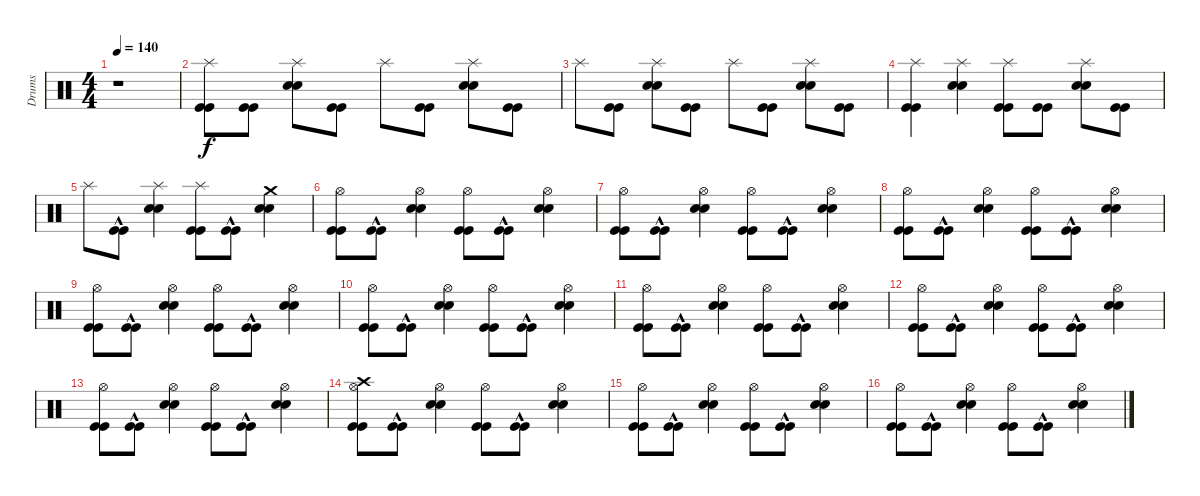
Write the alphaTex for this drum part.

\track ("Drums" "Drums") {instrument percussion}
\staff {score}
\articulation defaults
\ts (4 4)
\tempo 140
\clef neutral
\ks c
r.1{dy f} |
("Kick (hit)" "Kick (hit)" "Splash (hit)").8 ("Kick (hit)" "Kick (hit)").8 ("Snare (hit) 2" "Snare (hit) 2" "Splash (hit)").8 ("Kick (hit)" "Kick (hit)").8 "Splash (hit)".8 ("Kick (hit)" "Kick (hit)").8 ("Snare (hit) 2" "Snare (hit) 2" "Splash (hit)").8 ("Kick (hit)" "Kick (hit)").8 |
"Splash (hit)".8 ("Kick (hit)" "Kick (hit)").8 ("Snare (hit) 2" "Snare (hit) 2" "Splash (hit)").8 ("Kick (hit)" "Kick (hit)").8 "Splash (hit)".8 ("Kick (hit)" "Kick (hit)").8 ("Snare (hit) 2" "Snare (hit) 2" "Splash (hit)").8 ("Kick (hit)" "Kick (hit)").8 |
("Kick (hit)" "Kick (hit)" "Splash (hit)").4 ("Snare (hit) 2" "Snare (hit) 2" "Splash (hit)").4 ("Kick (hit)" "Kick (hit)" "Splash (hit)").8 ("Kick (hit)" "Kick (hit)").8 ("Snare (hit) 2" "Snare (hit) 2" "Splash (hit)").8 ("Kick (hit)" "Kick (hit)").8 |
"Splash (hit)".8 ("Kick (hit)"{hac} "Kick (hit)"{hac}).8 ("Snare (hit) 2" "Snare (hit) 2" "Splash (hit)").4 ("Kick (hit)" "Kick (hit)" "Splash (hit)").8 ("Kick (hit)"{hac} "Kick (hit)"{hac}).8 ("Snare (hit) 2" "Snare (hit) 2" "Crash medium (hit)").4 |
("Kick (hit)" "Kick (hit)" "Hi-Hat (open)").8 ("Kick (hit)"{hac} "Kick (hit)"{hac}).8 ("Snare (hit) 2" "Snare (hit) 2" "Hi-Hat (open)").4 ("Kick (hit)" "Kick (hit)" "Hi-Hat (open)").8 ("Kick (hit)"{hac} "Kick (hit)"{hac}).8 ("Snare (hit) 2" "Snare (hit) 2" "Hi-Hat (open)").4 |
("Kick (hit)" "Kick (hit)" "Hi-Hat (open)").8 ("Kick (hit)"{hac} "Kick (hit)"{hac}).8 ("Snare (hit) 2" "Snare (hit) 2" "Hi-Hat (open)").4 ("Kick (hit)" "Kick (hit)" "Hi-Hat (open)").8 ("Kick (hit)"{hac} "Kick (hit)"{hac}).8 ("Snare (hit) 2" "Snare (hit) 2" "Hi-Hat (open)").4 |
("Kick (hit)" "Kick (hit)" "Hi-Hat (open)").8 ("Kick (hit)"{hac} "Kick (hit)"{hac}).8 ("Snare (hit) 2" "Snare (hit) 2" "Hi-Hat (open)").4 ("Kick (hit)" "Kick (hit)" "Hi-Hat (open)").8 ("Kick (hit)"{hac} "Kick (hit)"{hac}).8 ("Snare (hit) 2" "Snare (hit) 2" "Hi-Hat (open)").4 |
("Kick (hit)" "Kick (hit)" "Hi-Hat (open)").8 ("Kick (hit)"{hac} "Kick (hit)"{hac}).8 ("Snare (hit) 2" "Snare (hit) 2" "Hi-Hat (open)").4 ("Kick (hit)" "Kick (hit)" "Hi-Hat (open)").8 ("Kick (hit)"{hac} "Kick (hit)"{hac}).8 ("Snare (hit) 2" "Snare (hit) 2" "Hi-Hat (open)").4 |
("Kick (hit)" "Kick (hit)" "Hi-Hat (open)").8 ("Kick (hit)"{hac} "Kick (hit)"{hac}).8 ("Snare (hit) 2" "Snare (hit) 2" "Hi-Hat (open)").4 ("Kick (hit)" "Kick (hit)" "Hi-Hat (open)").8 ("Kick (hit)"{hac} "Kick (hit)"{hac}).8 ("Snare (hit) 2" "Snare (hit) 2" "Hi-Hat (open)").4 |
("Kick (hit)" "Kick (hit)" "Hi-Hat (open)").8 ("Kick (hit)"{hac} "Kick (hit)"{hac}).8 ("Snare (hit) 2" "Snare (hit) 2" "Hi-Hat (open)").4 ("Kick (hit)" "Kick (hit)" "Hi-Hat (open)").8 ("Kick (hit)"{hac} "Kick (hit)"{hac}).8 ("Snare (hit) 2" "Snare (hit) 2" "Hi-Hat (open)").4 |
("Kick (hit)" "Kick (hit)" "Hi-Hat (open)").8 ("Kick (hit)"{hac} "Kick (hit)"{hac}).8 ("Snare (hit) 2" "Snare (hit) 2" "Hi-Hat (open)").4 ("Kick (hit)" "Kick (hit)" "Hi-Hat (open)").8 ("Kick (hit)"{hac} "Kick (hit)"{hac}).8 ("Snare (hit) 2" "Snare (hit) 2" "Hi-Hat (open)").4 |
("Kick (hit)" "Kick (hit)" "Hi-Hat (open)").8 ("Kick (hit)"{hac} "Kick (hit)"{hac}).8 ("Snare (hit) 2" "Snare (hit) 2" "Hi-Hat (open)").4 ("Kick (hit)" "Kick (hit)" "Hi-Hat (open)").8 ("Kick (hit)"{hac} "Kick (hit)"{hac}).8 ("Snare (hit) 2" "Snare (hit) 2" "Hi-Hat (open)").4 |
("Kick (hit)" "Kick (hit)" "Hi-Hat (open)" "Crash high (hit)").8 ("Kick (hit)"{hac} "Kick (hit)"{hac}).8 ("Snare (hit) 2" "Snare (hit) 2" "Hi-Hat (open)").4 ("Kick (hit)" "Kick (hit)" "Hi-Hat (open)").8 ("Kick (hit)"{hac} "Kick (hit)"{hac}).8 ("Snare (hit) 2" "Snare (hit) 2" "Hi-Hat (open)").4 |
("Kick (hit)" "Kick (hit)" "Hi-Hat (open)").8 ("Kick (hit)"{hac} "Kick (hit)"{hac}).8 ("Snare (hit) 2" "Snare (hit) 2" "Hi-Hat (open)").4 ("Kick (hit)" "Kick (hit)" "Hi-Hat (open)").8 ("Kick (hit)"{hac} "Kick (hit)"{hac}).8 ("Snare (hit) 2" "Snare (hit) 2" "Hi-Hat (open)").4 |
("Kick (hit)" "Kick (hit)" "Hi-Hat (open)").8 ("Kick (hit)"{hac} "Kick (hit)"{hac}).8 ("Snare (hit) 2" "Snare (hit) 2" "Hi-Hat (open)").4 ("Kick (hit)" "Kick (hit)" "Hi-Hat (open)").8 ("Kick (hit)"{hac} "Kick (hit)"{hac}).8 ("Snare (hit) 2" "Snare (hit) 2" "Hi-Hat (open)").4
